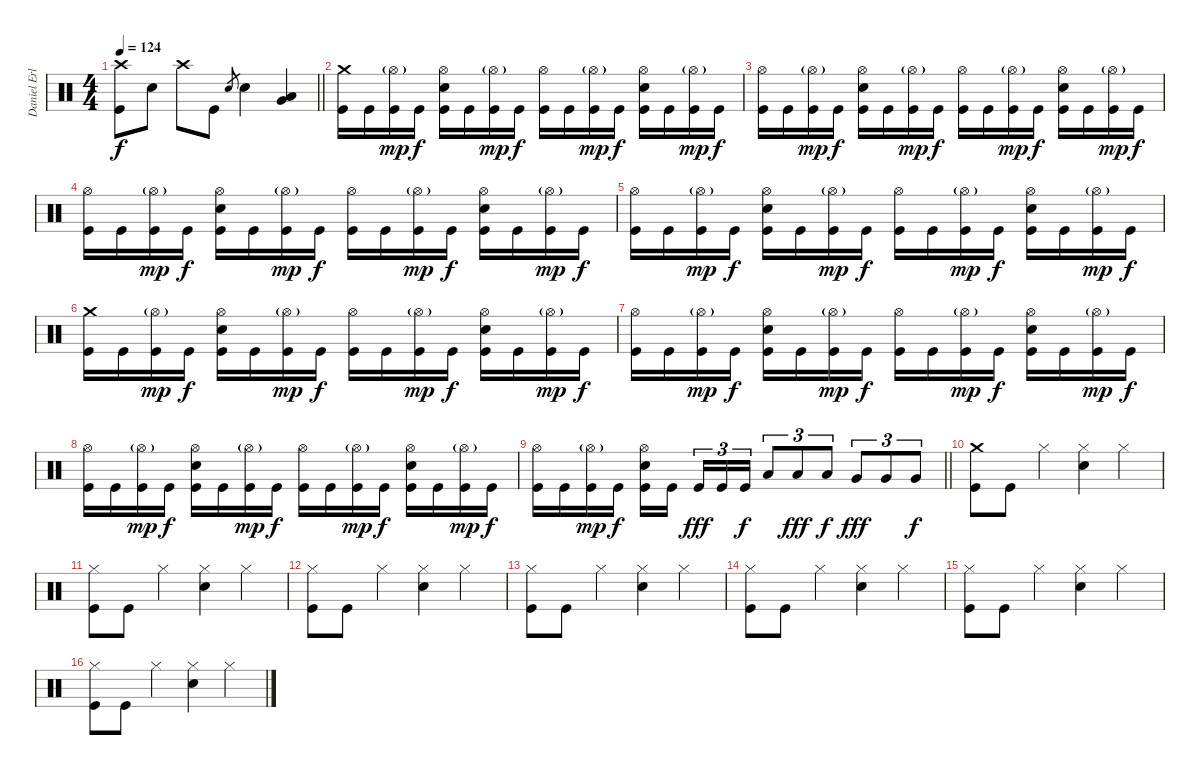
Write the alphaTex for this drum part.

\track ("Daniel Erlandsson" "Daniel Erl") {instrument percussion}
\staff {score}
\articulation defaults
\ts (4 4)
\tempo 124
\clef neutral
\barLineRight lightlight
\ks c
("Crash high (hit)" "Kick (hit)").8{dy f} "Snare (hit) 2".8 "Crash high (hit)".8 "Kick (hit)".8 "Snare (hit) 2".8{gr} "Snare (hit) 2".4 ("Low Tom (hit)" "Very Low Tom (hit)").4 |
\section ("" "")
("Crash medium (hit)" "Kick (hit)").16 "Kick (hit)".16 ("Hi-Hat (open)"{g} "Kick (hit)").16{dy mp} "Kick (hit)".16{dy f} ("Hi-Hat (open)" "Snare (hit) 2" "Kick (hit)").16 "Kick (hit)".16 ("Hi-Hat (open)"{g} "Kick (hit)").16{dy mp} "Kick (hit)".16{dy f} ("Hi-Hat (open)" "Kick (hit)").16 "Kick (hit)".16 ("Hi-Hat (open)"{g} "Kick (hit)").16{dy mp} "Kick (hit)".16{dy f} ("Hi-Hat (open)" "Snare (hit) 2" "Kick (hit)").16 "Kick (hit)".16 ("Hi-Hat (open)"{g} "Kick (hit)").16{dy mp} "Kick (hit)".16{dy f} |
("Hi-Hat (open)" "Kick (hit)").16 "Kick (hit)".16 ("Hi-Hat (open)"{g} "Kick (hit)").16{dy mp} "Kick (hit)".16{dy f} ("Hi-Hat (open)" "Snare (hit) 2" "Kick (hit)").16 "Kick (hit)".16 ("Hi-Hat (open)"{g} "Kick (hit)").16{dy mp} "Kick (hit)".16{dy f} ("Hi-Hat (open)" "Kick (hit)").16 "Kick (hit)".16 ("Hi-Hat (open)"{g} "Kick (hit)").16{dy mp} "Kick (hit)".16{dy f} ("Hi-Hat (open)" "Snare (hit) 2" "Kick (hit)").16 "Kick (hit)".16 ("Hi-Hat (open)"{g} "Kick (hit)").16{dy mp} "Kick (hit)".16{dy f} |
("Hi-Hat (open)" "Kick (hit)").16 "Kick (hit)".16 ("Hi-Hat (open)"{g} "Kick (hit)").16{dy mp} "Kick (hit)".16{dy f} ("Hi-Hat (open)" "Snare (hit) 2" "Kick (hit)").16 "Kick (hit)".16 ("Hi-Hat (open)"{g} "Kick (hit)").16{dy mp} "Kick (hit)".16{dy f} ("Hi-Hat (open)" "Kick (hit)").16 "Kick (hit)".16 ("Hi-Hat (open)"{g} "Kick (hit)").16{dy mp} "Kick (hit)".16{dy f} ("Hi-Hat (open)" "Snare (hit) 2" "Kick (hit)").16 "Kick (hit)".16 ("Hi-Hat (open)"{g} "Kick (hit)").16{dy mp} "Kick (hit)".16{dy f} |
("Hi-Hat (open)" "Kick (hit)").16 "Kick (hit)".16 ("Hi-Hat (open)"{g} "Kick (hit)").16{dy mp} "Kick (hit)".16{dy f} ("Hi-Hat (open)" "Snare (hit) 2" "Kick (hit)").16 "Kick (hit)".16 ("Hi-Hat (open)"{g} "Kick (hit)").16{dy mp} "Kick (hit)".16{dy f} ("Hi-Hat (open)" "Kick (hit)").16 "Kick (hit)".16 ("Hi-Hat (open)"{g} "Kick (hit)").16{dy mp} "Kick (hit)".16{dy f} ("Hi-Hat (open)" "Snare (hit) 2" "Kick (hit)").16 "Kick (hit)".16 ("Hi-Hat (open)"{g} "Kick (hit)").16{dy mp} "Kick (hit)".16{dy f} |
("Crash medium (hit)" "Kick (hit)").16 "Kick (hit)".16 ("Hi-Hat (open)"{g} "Kick (hit)").16{dy mp} "Kick (hit)".16{dy f} ("Hi-Hat (open)" "Snare (hit) 2" "Kick (hit)").16 "Kick (hit)".16 ("Hi-Hat (open)"{g} "Kick (hit)").16{dy mp} "Kick (hit)".16{dy f} ("Hi-Hat (open)" "Kick (hit)").16 "Kick (hit)".16 ("Hi-Hat (open)"{g} "Kick (hit)").16{dy mp} "Kick (hit)".16{dy f} ("Hi-Hat (open)" "Snare (hit) 2" "Kick (hit)").16 "Kick (hit)".16 ("Hi-Hat (open)"{g} "Kick (hit)").16{dy mp} "Kick (hit)".16{dy f} |
("Hi-Hat (open)" "Kick (hit)").16 "Kick (hit)".16 ("Hi-Hat (open)"{g} "Kick (hit)").16{dy mp} "Kick (hit)".16{dy f} ("Hi-Hat (open)" "Snare (hit) 2" "Kick (hit)").16 "Kick (hit)".16 ("Hi-Hat (open)"{g} "Kick (hit)").16{dy mp} "Kick (hit)".16{dy f} ("Hi-Hat (open)" "Kick (hit)").16 "Kick (hit)".16 ("Hi-Hat (open)"{g} "Kick (hit)").16{dy mp} "Kick (hit)".16{dy f} ("Hi-Hat (open)" "Snare (hit) 2" "Kick (hit)").16 "Kick (hit)".16 ("Hi-Hat (open)"{g} "Kick (hit)").16{dy mp} "Kick (hit)".16{dy f} |
("Hi-Hat (open)" "Kick (hit)").16 "Kick (hit)".16 ("Hi-Hat (open)"{g} "Kick (hit)").16{dy mp} "Kick (hit)".16{dy f} ("Hi-Hat (open)" "Snare (hit) 2" "Kick (hit)").16 "Kick (hit)".16 ("Hi-Hat (open)"{g} "Kick (hit)").16{dy mp} "Kick (hit)".16{dy f} ("Hi-Hat (open)" "Kick (hit)").16 "Kick (hit)".16 ("Hi-Hat (open)"{g} "Kick (hit)").16{dy mp} "Kick (hit)".16{dy f} ("Hi-Hat (open)" "Snare (hit) 2" "Kick (hit)").16 "Kick (hit)".16 ("Hi-Hat (open)"{g} "Kick (hit)").16{dy mp} "Kick (hit)".16{dy f} |
\barLineRight lightlight
("Hi-Hat (open)" "Kick (hit)").16 "Kick (hit)".16 ("Hi-Hat (open)"{g} "Kick (hit)").16{dy mp} "Kick (hit)".16{dy f} ("Hi-Hat (open)" "Snare (hit) 2" "Kick (hit)").16 "Kick (hit)".16{beam splitsecondary} "Kick (hit)".16{tu (3 2) dy fff} "Kick (hit)".16{tu (3 2)} "Kick (hit)".16{tu (3 2) dy f} "Low Tom (hit)".8{tu (3 2)} "Low Tom (hit)".8{tu (3 2) dy fff} "Low Tom (hit)".8{tu (3 2) dy f} "Very Low Tom (hit)".8{tu (3 2) dy fff} "Very Low Tom (hit)".8{tu (3 2)} "Very Low Tom (hit)".8{tu (3 2) dy f} |
\section ("" "")
("Crash medium (hit)" "Kick (hit)").8 "Kick (hit)".8 "Hi-Hat (closed)".4 ("Hi-Hat (closed)" "Snare (hit) 2").4 "Hi-Hat (closed)".4 |
("Hi-Hat (closed)" "Kick (hit)").8 "Kick (hit)".8 "Hi-Hat (closed)".4 ("Hi-Hat (closed)" "Snare (hit) 2").4 "Hi-Hat (closed)".4 |
("Hi-Hat (closed)" "Kick (hit)").8 "Kick (hit)".8 "Hi-Hat (closed)".4 ("Hi-Hat (closed)" "Snare (hit) 2").4 "Hi-Hat (closed)".4 |
("Hi-Hat (closed)" "Kick (hit)").8 "Kick (hit)".8 "Hi-Hat (closed)".4 ("Hi-Hat (closed)" "Snare (hit) 2").4 "Hi-Hat (closed)".4 |
("Hi-Hat (closed)" "Kick (hit)").8 "Kick (hit)".8 "Hi-Hat (closed)".4 ("Hi-Hat (closed)" "Snare (hit) 2").4 "Hi-Hat (closed)".4 |
("Hi-Hat (closed)" "Kick (hit)").8 "Kick (hit)".8 "Hi-Hat (closed)".4 ("Hi-Hat (closed)" "Snare (hit) 2").4 "Hi-Hat (closed)".4 |
("Hi-Hat (closed)" "Kick (hit)").8 "Kick (hit)".8 "Hi-Hat (closed)".4 ("Hi-Hat (closed)" "Snare (hit) 2").4 "Hi-Hat (closed)".4
